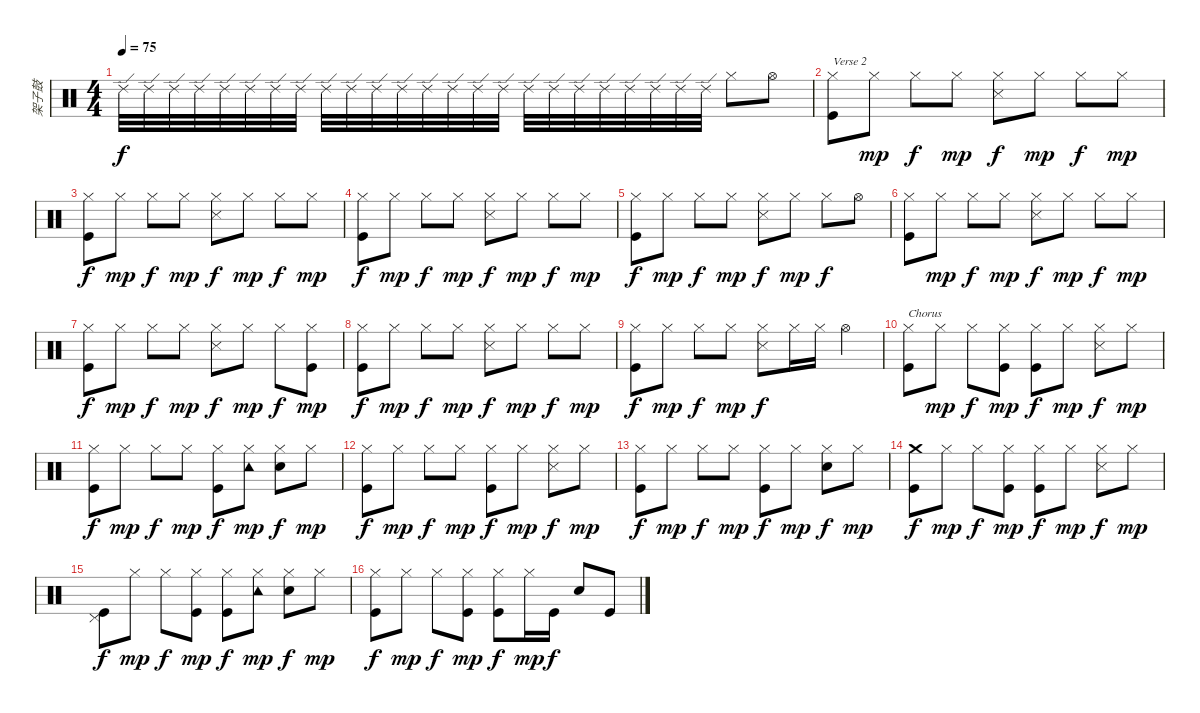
\track ("架子鼓" "架子鼓") {instrument percussion}
\staff {score}
\articulation defaults
\ts (4 4)
\tempo 75
\clef neutral
\ks c "Ride (edge) 2".32{dy f volume 0} "Ride (edge) 2".32 "Ride (edge) 2".32 "Ride (edge) 2".32 "Ride (edge) 2".32 "Ride (edge) 2".32 "Ride (edge) 2".32 "Ride (edge) 2".32 "Ride (edge) 2".32 "Ride (edge) 2".32 "Ride (edge) 2".32 "Ride (edge) 2".32 "Ride (edge) 2".32 "Ride (edge) 2".32 "Ride (edge) 2".32 "Ride (edge) 2".32 "Ride (edge) 2".32 "Ride (edge) 2".32 "Ride (edge) 2".32 "Ride (edge) 2".32 "Ride (edge) 2".32 "Ride (edge) 2".32 "Ride (edge) 2".32 "Ride (edge) 2".32 "Hi-Hat (closed)".8{volume 16} "Hi-Hat (open)".8
|
("Hi-Hat (closed)" "Kick (hit)").8{txt "Verse 2"} "Hi-Hat (closed)".8{dy mp} "Hi-Hat (closed)".8{dy f} "Hi-Hat (closed)".8{dy mp} ("Hi-Hat (closed)" "Snare (side stick) 3").8{dy f} "Hi-Hat (closed)".8{dy mp} "Hi-Hat (closed)".8{dy f} "Hi-Hat (closed)".8{dy mp} |
("Hi-Hat (closed)" "Kick (hit)").8{dy f} "Hi-Hat (closed)".8{dy mp} "Hi-Hat (closed)".8{dy f} "Hi-Hat (closed)".8{dy mp} ("Hi-Hat (closed)" "Snare (side stick) 3").8{dy f} "Hi-Hat (closed)".8{dy mp} "Hi-Hat (closed)".8{dy f} "Hi-Hat (closed)".8{dy mp} |
("Hi-Hat (closed)" "Kick (hit)").8{dy f} "Hi-Hat (closed)".8{dy mp} "Hi-Hat (closed)".8{dy f} "Hi-Hat (closed)".8{dy mp} ("Hi-Hat (closed)" "Snare (side stick) 3").8{dy f} "Hi-Hat (closed)".8{dy mp} "Hi-Hat (closed)".8{dy f} "Hi-Hat (closed)".8{dy mp} |
("Hi-Hat (closed)" "Kick (hit)").8{dy f} "Hi-Hat (closed)".8{dy mp} "Hi-Hat (closed)".8{dy f} "Hi-Hat (closed)".8{dy mp} ("Hi-Hat (closed)" "Snare (side stick) 3").8{dy f} "Hi-Hat (closed)".8{dy mp} "Hi-Hat (closed)".8{dy f} "Hi-Hat (open)".8 |
("Hi-Hat (closed)" "Kick (hit)").8 "Hi-Hat (closed)".8{dy mp} "Hi-Hat (closed)".8{dy f} "Hi-Hat (closed)".8{dy mp} ("Hi-Hat (closed)" "Snare (side stick) 3").8{dy f} "Hi-Hat (closed)".8{dy mp} "Hi-Hat (closed)".8{dy f} "Hi-Hat (closed)".8{dy mp} |
("Hi-Hat (closed)" "Kick (hit)").8{dy f} "Hi-Hat (closed)".8{dy mp} "Hi-Hat (closed)".8{dy f} "Hi-Hat (closed)".8{dy mp} ("Hi-Hat (closed)" "Snare (side stick) 3").8{dy f} "Hi-Hat (closed)".8{dy mp} "Hi-Hat (closed)".8{dy f} ("Hi-Hat (closed)" "Kick (hit)").8{dy mp} |
("Hi-Hat (closed)" "Kick (hit)").8{dy f} "Hi-Hat (closed)".8{dy mp} "Hi-Hat (closed)".8{dy f} "Hi-Hat (closed)".8{dy mp} ("Hi-Hat (closed)" "Snare (side stick) 3").8{dy f} "Hi-Hat (closed)".8{dy mp} "Hi-Hat (closed)".8{dy f} "Hi-Hat (closed)".8{dy mp} |
("Hi-Hat (closed)" "Kick (hit)").8{dy f} "Hi-Hat (closed)".8{dy mp} "Hi-Hat (closed)".8{dy f} "Hi-Hat (closed)".8{dy mp} ("Hi-Hat (closed)" "Snare (side stick) 3").8{dy f} "Hi-Hat (closed)".16 "Hi-Hat (closed)".16 "Hi-Hat (open)".4 |
("Hi-Hat (closed)" "Kick (hit)").8{txt "Chorus"} "Hi-Hat (closed)".8{dy mp} "Hi-Hat (closed)".8{dy f} ("Hi-Hat (closed)" "Kick (hit)").8{dy mp} ("Hi-Hat (closed)" "Kick (hit)").8{dy f} "Hi-Hat (closed)".8{dy mp} ("Hi-Hat (closed)" "Snare (side stick) 3").8{dy f} "Hi-Hat (closed)".8{dy mp} |
("Hi-Hat (closed)" "Kick (hit)").8{dy f} "Hi-Hat (closed)".8{dy mp} "Hi-Hat (closed)".8{dy f} "Hi-Hat (closed)".8{dy mp} ("Hi-Hat (closed)" "Kick (hit)").8{dy f} ("Hi-Hat (closed)" "Tambourine (hit)").8{dy mp} ("Hi-Hat (closed)" "Snare (hit) 2").8{dy f} "Hi-Hat (closed)".8{dy mp} |
("Hi-Hat (closed)" "Kick (hit)").8{dy f} "Hi-Hat (closed)".8{dy mp} "Hi-Hat (closed)".8{dy f} "Hi-Hat (closed)".8{dy mp} ("Hi-Hat (closed)" "Kick (hit)").8{dy f} "Hi-Hat (closed)".8{dy mp} ("Hi-Hat (closed)" "Snare (side stick) 3").8{dy f} "Hi-Hat (closed)".8{dy mp} |
("Hi-Hat (closed)" "Kick (hit)").8{dy f} "Hi-Hat (closed)".8{dy mp} "Hi-Hat (closed)".8{dy f} "Hi-Hat (closed)".8{dy mp} ("Hi-Hat (closed)" "Kick (hit)").8{dy f} "Hi-Hat (closed)".8{dy mp} ("Hi-Hat (closed)" "Snare (hit) 2").8{dy f} "Hi-Hat (closed)".8{dy mp} |
("Crash medium (hit)" "Kick (hit)").8{dy f} "Hi-Hat (closed)".8{dy mp} "Hi-Hat (closed)".8{dy f} ("Hi-Hat (closed)" "Kick (hit)").8{dy mp} ("Hi-Hat (closed)" "Kick (hit)").8{dy f} "Hi-Hat (closed)".8{dy mp} ("Hi-Hat (closed)" "Snare (side stick) 3").8{dy f} "Hi-Hat (closed)".8{dy mp} |
("Pedal Hi-Hat (hit)" "Kick (hit)").8{dy f} "Hi-Hat (closed)".8{dy mp} "Hi-Hat (closed)".8{dy f} ("Hi-Hat (closed)" "Kick (hit)").8{dy mp} ("Hi-Hat (closed)" "Kick (hit)").8{dy f} ("Hi-Hat (closed)" "Tambourine (hit)").8{dy mp} ("Hi-Hat (closed)" "Snare (hit) 2").8{dy f} "Hi-Hat (closed)".8{dy mp} |
("Hi-Hat (closed)" "Kick (hit)").8{dy f} "Hi-Hat (closed)".8{dy mp} "Hi-Hat (closed)".8{dy f} ("Hi-Hat (closed)" "Kick (hit)").8{dy mp} ("Hi-Hat (closed)" "Kick (hit)").8{dy f} "Hi-Hat (closed)".16{dy mp} "Kick (hit)".16{dy f} "Snare (hit) 2".8 "Kick (hit)".8
